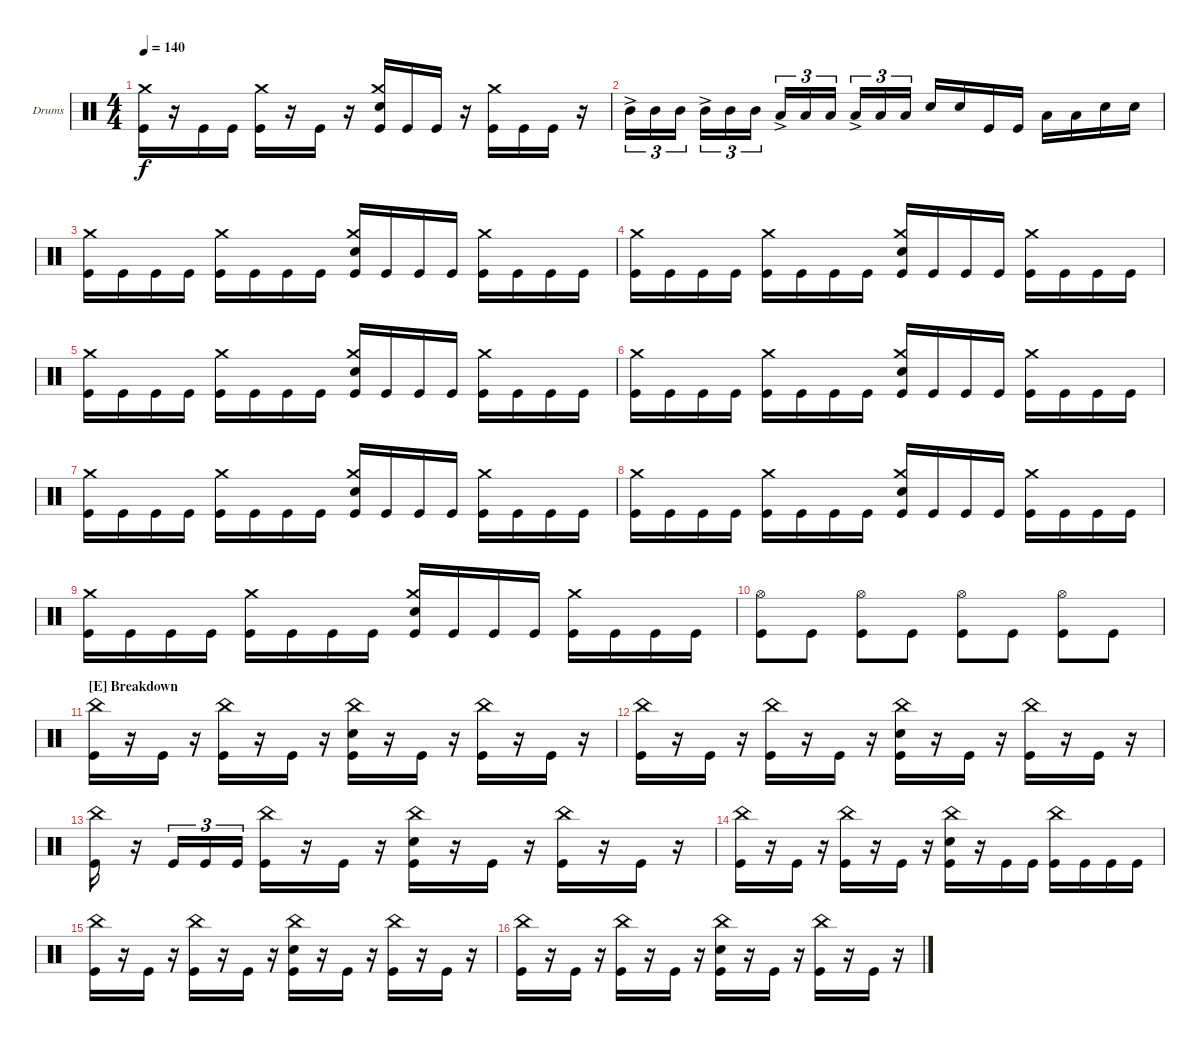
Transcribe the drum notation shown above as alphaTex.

\bracketExtendMode groupsimilarinstruments
\firstSystemTrackNameOrientation horizontal
\otherSystemsTrackNameOrientation horizontal
\track ("Drumkit" "Drums") {instrument percussion}
\staff {score}
\articulation defaults
\ts (4 4)
\tempo 140
\clef neutral
\ks c
("Kick (hit)" "Crash medium (hit)").16{dy f} r.16 "Kick (hit)".16 "Kick (hit)".16 ("Kick (hit)" "Crash medium (hit)").16 r.16 "Kick (hit)".16 r.16 ("Kick (hit)" "Snare (hit) 2" "Crash medium (hit)").16 "Kick (hit)".16 "Kick (hit)".16 r.16 ("Kick (hit)" "Crash medium (hit)").16 "Kick (hit)".16 "Kick (hit)".16 r.16 |
"Mid Tom (hit)"{ac}.16{tu (3 2)} "Mid Tom (hit)".16{tu (3 2)} "Mid Tom (hit)".16{tu (3 2)} "Mid Tom (hit)"{ac}.16{tu (3 2)} "Mid Tom (hit)".16{tu (3 2)} "Mid Tom (hit)".16{tu (3 2)} "Low Tom (hit)"{ac}.16{tu (3 2)} "Low Tom (hit)".16{tu (3 2)} "Low Tom (hit)".16{tu (3 2)} "Low Tom (hit)"{ac}.16{tu (3 2)} "Low Tom (hit)".16{tu (3 2)} "Low Tom (hit)".16{tu (3 2)} "Snare (hit) 2".16 "Snare (hit) 2".16 "Kick (hit)".16 "Kick (hit)".16 "Low Tom (hit)".16 "Low Tom (hit)".16 "Snare (hit) 2".16 "Snare (hit) 2".16 |
("Kick (hit)" "Crash medium (hit)").16 "Kick (hit)".16 "Kick (hit)".16 "Kick (hit)".16 ("Kick (hit)" "Crash medium (hit)").16 "Kick (hit)".16 "Kick (hit)".16 "Kick (hit)".16 ("Kick (hit)" "Snare (hit) 2" "Crash medium (hit)").16 "Kick (hit)".16 "Kick (hit)".16 "Kick (hit)".16 ("Kick (hit)" "Crash medium (hit)").16 "Kick (hit)".16 "Kick (hit)".16 "Kick (hit)".16 |
("Kick (hit)" "Crash medium (hit)").16 "Kick (hit)".16 "Kick (hit)".16 "Kick (hit)".16 ("Kick (hit)" "Crash medium (hit)").16 "Kick (hit)".16 "Kick (hit)".16 "Kick (hit)".16 ("Kick (hit)" "Snare (hit) 2" "Crash medium (hit)").16 "Kick (hit)".16 "Kick (hit)".16 "Kick (hit)".16 ("Kick (hit)" "Crash medium (hit)").16 "Kick (hit)".16 "Kick (hit)".16 "Kick (hit)".16 |
("Kick (hit)" "Crash medium (hit)").16 "Kick (hit)".16 "Kick (hit)".16 "Kick (hit)".16 ("Kick (hit)" "Crash medium (hit)").16 "Kick (hit)".16 "Kick (hit)".16 "Kick (hit)".16 ("Kick (hit)" "Snare (hit) 2" "Crash medium (hit)").16 "Kick (hit)".16 "Kick (hit)".16 "Kick (hit)".16 ("Kick (hit)" "Crash medium (hit)").16 "Kick (hit)".16 "Kick (hit)".16 "Kick (hit)".16 |
("Kick (hit)" "Crash medium (hit)").16 "Kick (hit)".16 "Kick (hit)".16 "Kick (hit)".16 ("Kick (hit)" "Crash medium (hit)").16 "Kick (hit)".16 "Kick (hit)".16 "Kick (hit)".16 ("Kick (hit)" "Snare (hit) 2" "Crash medium (hit)").16 "Kick (hit)".16 "Kick (hit)".16 "Kick (hit)".16 ("Kick (hit)" "Crash medium (hit)").16 "Kick (hit)".16 "Kick (hit)".16 "Kick (hit)".16 |
("Kick (hit)" "Crash medium (hit)").16 "Kick (hit)".16 "Kick (hit)".16 "Kick (hit)".16 ("Kick (hit)" "Crash medium (hit)").16 "Kick (hit)".16 "Kick (hit)".16 "Kick (hit)".16 ("Kick (hit)" "Snare (hit) 2" "Crash medium (hit)").16 "Kick (hit)".16 "Kick (hit)".16 "Kick (hit)".16 ("Kick (hit)" "Crash medium (hit)").16 "Kick (hit)".16 "Kick (hit)".16 "Kick (hit)".16 |
("Kick (hit)" "Crash medium (hit)").16 "Kick (hit)".16 "Kick (hit)".16 "Kick (hit)".16 ("Kick (hit)" "Crash medium (hit)").16 "Kick (hit)".16 "Kick (hit)".16 "Kick (hit)".16 ("Kick (hit)" "Snare (hit) 2" "Crash medium (hit)").16 "Kick (hit)".16 "Kick (hit)".16 "Kick (hit)".16 ("Kick (hit)" "Crash medium (hit)").16 "Kick (hit)".16 "Kick (hit)".16 "Kick (hit)".16 |
("Kick (hit)" "Crash medium (hit)").16 "Kick (hit)".16 "Kick (hit)".16 "Kick (hit)".16 ("Kick (hit)" "Crash medium (hit)").16 "Kick (hit)".16 "Kick (hit)".16 "Kick (hit)".16 ("Kick (hit)" "Snare (hit) 2" "Crash medium (hit)").16 "Kick (hit)".16 "Kick (hit)".16 "Kick (hit)".16 ("Kick (hit)" "Crash medium (hit)").16 "Kick (hit)".16 "Kick (hit)".16 "Kick (hit)".16 |
("Kick (hit)" "Hi-Hat (open)").8 "Kick (hit)".8 ("Kick (hit)" "Hi-Hat (open)").8 "Kick (hit)".8 ("Kick (hit)" "Hi-Hat (open)").8 "Kick (hit)".8 ("Kick (hit)" "Hi-Hat (open)").8 "Kick (hit)".8 |
\section ("E" "Breakdown")
("Kick (hit)" "China (hit)").16 r.16 "Kick (hit)".16 r.16 ("Kick (hit)" "China (hit)").16 r.16 "Kick (hit)".16 r.16 ("Kick (hit)" "China (hit)" "Snare (hit) 2").16 r.16 "Kick (hit)".16 r.16 ("Kick (hit)" "China (hit)").16 r.16 "Kick (hit)".16 r.16 |
("Kick (hit)" "China (hit)").16 r.16 "Kick (hit)".16 r.16 ("Kick (hit)" "China (hit)").16 r.16 "Kick (hit)".16 r.16 ("Kick (hit)" "China (hit)" "Snare (hit) 2").16 r.16 "Kick (hit)".16 r.16 ("Kick (hit)" "China (hit)").16 r.16 "Kick (hit)".16 r.16 |
("Kick (hit)" "China (hit)").16 r.16 "Kick (hit)".16{tu (3 2)} "Kick (hit)".16{tu (3 2)} "Kick (hit)".16{tu (3 2)} ("Kick (hit)" "China (hit)").16 r.16 "Kick (hit)".16 r.16 ("Kick (hit)" "China (hit)" "Snare (hit) 2").16 r.16 "Kick (hit)".16 r.16 ("Kick (hit)" "China (hit)").16 r.16 "Kick (hit)".16 r.16 |
("Kick (hit)" "China (hit)").16 r.16 "Kick (hit)".16 r.16 ("Kick (hit)" "China (hit)").16 r.16 "Kick (hit)".16 r.16 ("Kick (hit)" "China (hit)" "Snare (hit) 2").16 r.16 "Kick (hit)".16 "Kick (hit)".16 ("Kick (hit)" "China (hit)").16 "Kick (hit)".16 "Kick (hit)".16 "Kick (hit)".16 |
("Kick (hit)" "China (hit)").16 r.16 "Kick (hit)".16 r.16 ("Kick (hit)" "China (hit)").16 r.16 "Kick (hit)".16 r.16 ("Kick (hit)" "China (hit)" "Snare (hit) 2").16 r.16 "Kick (hit)".16 r.16 ("Kick (hit)" "China (hit)").16 r.16 "Kick (hit)".16 r.16 |
("Kick (hit)" "China (hit)").16 r.16 "Kick (hit)".16 r.16 ("Kick (hit)" "China (hit)").16 r.16 "Kick (hit)".16 r.16 ("Kick (hit)" "China (hit)" "Snare (hit) 2").16 r.16 "Kick (hit)".16 r.16 ("Kick (hit)" "China (hit)").16 r.16 "Kick (hit)".16 r.16
